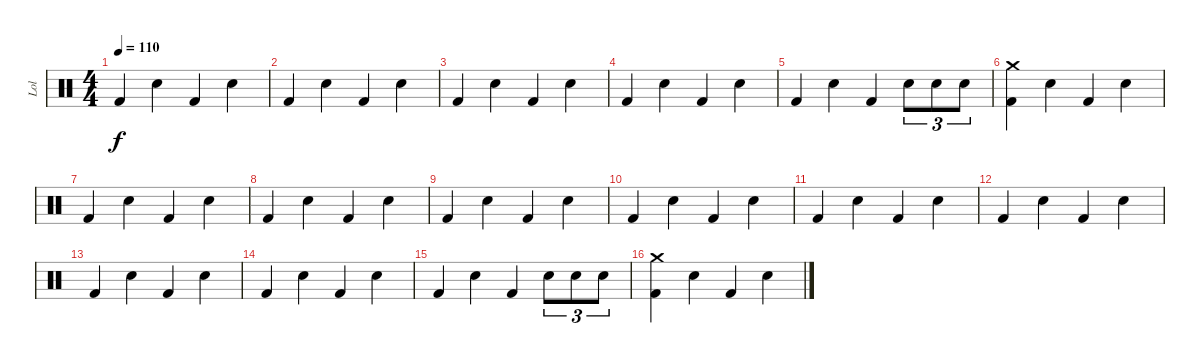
\track ("Lol" "Lol") {instrument percussion}
\staff {score}
\articulation defaults
\ts (4 4)
\tempo 110
\clef neutral
\ks c "Kick (hit) 2".4{dy f} "Electric Snare (hit)".4 "Kick (hit) 2".4 "Electric Snare (hit)".4
|
"Kick (hit) 2".4 "Electric Snare (hit)".4 "Kick (hit) 2".4 "Electric Snare (hit)".4 |
"Kick (hit) 2".4 "Electric Snare (hit)".4 "Kick (hit) 2".4 "Electric Snare (hit)".4 |
"Kick (hit) 2".4 "Electric Snare (hit)".4 "Kick (hit) 2".4 "Electric Snare (hit)".4 |
"Kick (hit) 2".4 "Electric Snare (hit)".4 "Kick (hit) 2".4 "Electric Snare (hit)".8{tu (3 2)} "Electric Snare (hit)".8{tu (3 2)} "Electric Snare (hit)".8{tu (3 2)} |
("Kick (hit) 2" "Crash medium (hit)").4 "Electric Snare (hit)".4 "Kick (hit) 2".4 "Electric Snare (hit)".4 |
"Kick (hit) 2".4 "Electric Snare (hit)".4 "Kick (hit) 2".4 "Electric Snare (hit)".4 |
"Kick (hit) 2".4 "Electric Snare (hit)".4 "Kick (hit) 2".4 "Electric Snare (hit)".4 |
"Kick (hit) 2".4 "Electric Snare (hit)".4 "Kick (hit) 2".4 "Electric Snare (hit)".4 |
"Kick (hit) 2".4 "Electric Snare (hit)".4 "Kick (hit) 2".4 "Electric Snare (hit)".4 |
"Kick (hit) 2".4 "Electric Snare (hit)".4 "Kick (hit) 2".4 "Electric Snare (hit)".4 |
"Kick (hit) 2".4 "Electric Snare (hit)".4 "Kick (hit) 2".4 "Electric Snare (hit)".4 |
"Kick (hit) 2".4 "Electric Snare (hit)".4 "Kick (hit) 2".4 "Electric Snare (hit)".4 |
"Kick (hit) 2".4 "Electric Snare (hit)".4 "Kick (hit) 2".4 "Electric Snare (hit)".4 |
"Kick (hit) 2".4 "Electric Snare (hit)".4 "Kick (hit) 2".4 "Electric Snare (hit)".8{tu (3 2)} "Electric Snare (hit)".8{tu (3 2)} "Electric Snare (hit)".8{tu (3 2)} |
("Kick (hit) 2" "Crash medium (hit)").4 "Electric Snare (hit)".4 "Kick (hit) 2".4 "Electric Snare (hit)".4
